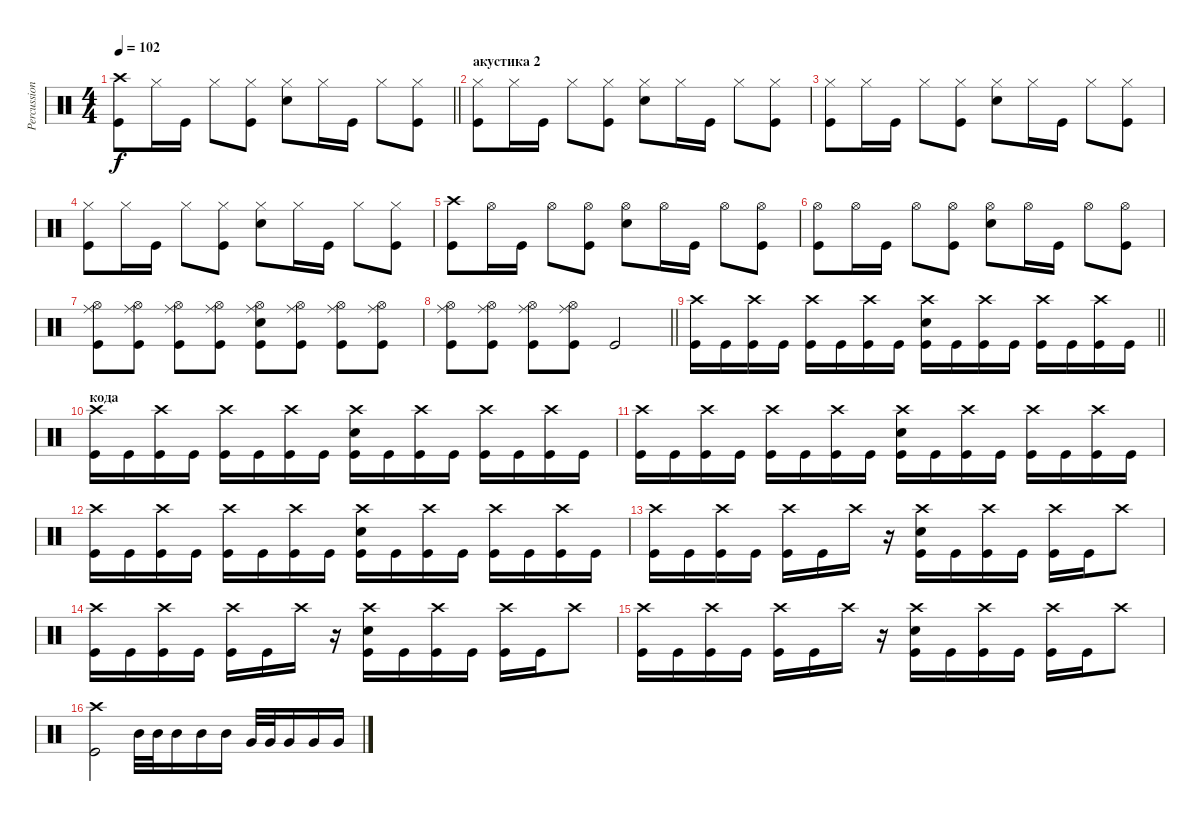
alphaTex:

\track ("Percussion" "Percussion") {solo instrument percussion}
\staff {score}
\articulation defaults
\ts (4 4)
\tempo 102
\clef neutral
\barLineRight lightlight
\ks c
("Kick (hit)" "Crash high (hit)").8{dy f} "Hi-Hat (closed)".16 "Kick (hit)".16 "Hi-Hat (closed)".8 ("Hi-Hat (closed)" "Kick (hit)").8 ("Hi-Hat (closed)" "Snare (hit) 2").8 "Hi-Hat (closed)".16 "Kick (hit)".16 "Hi-Hat (closed)".8 ("Kick (hit)" "Hi-Hat (closed)").8 |
\section ("" "акустика 2")
("Kick (hit)" "Hi-Hat (closed)").8 "Hi-Hat (closed)".16 "Kick (hit)".16 "Hi-Hat (closed)".8 ("Hi-Hat (closed)" "Kick (hit)").8 ("Hi-Hat (closed)" "Snare (hit) 2").8 "Hi-Hat (closed)".16 "Kick (hit)".16 "Hi-Hat (closed)".8 ("Kick (hit)" "Hi-Hat (closed)").8 |
("Kick (hit)" "Hi-Hat (closed)").8 "Hi-Hat (closed)".16 "Kick (hit)".16 "Hi-Hat (closed)".8 ("Hi-Hat (closed)" "Kick (hit)").8 ("Hi-Hat (closed)" "Snare (hit) 2").8 "Hi-Hat (closed)".16 "Kick (hit)".16 "Hi-Hat (closed)".8 ("Kick (hit)" "Hi-Hat (closed)").8 |
("Kick (hit)" "Hi-Hat (closed)").8 "Hi-Hat (closed)".16 "Kick (hit)".16 "Hi-Hat (closed)".8 ("Hi-Hat (closed)" "Kick (hit)").8 ("Hi-Hat (closed)" "Snare (hit) 2").8 "Hi-Hat (closed)".16 "Kick (hit)".16 "Hi-Hat (closed)".8 ("Kick (hit)" "Hi-Hat (closed)").8 |
("Kick (hit)" "Crash high (hit)").8 "Hi-Hat (open)".16 "Kick (hit)".16 "Hi-Hat (open)".8 ("Hi-Hat (open)" "Kick (hit)").8 ("Hi-Hat (open)" "Snare (hit) 2").8 "Hi-Hat (open)".16 "Kick (hit)".16 "Hi-Hat (open)".8 ("Kick (hit)" "Hi-Hat (open)").8 |
("Kick (hit)" "Hi-Hat (open)").8 "Hi-Hat (open)".16 "Kick (hit)".16 "Hi-Hat (open)".8 ("Kick (hit)" "Hi-Hat (open)").8 ("Snare (hit) 2" "Hi-Hat (open)").8 "Hi-Hat (open)".16 "Kick (hit)".16 "Hi-Hat (open)".8 ("Kick (hit)" "Hi-Hat (open)").8 |
("Hi-Hat (open)" "Kick (hit)" "Ride (middle)").8 ("Kick (hit)" "Hi-Hat (open)" "Ride (middle)").8 ("Hi-Hat (open)" "Kick (hit)" "Ride (middle)").8 ("Kick (hit)" "Hi-Hat (open)" "Ride (middle)").8 ("Kick (hit)" "Hi-Hat (open)" "Ride (middle)" "Snare (hit) 2").8 ("Kick (hit)" "Hi-Hat (open)" "Ride (middle)").8 ("Kick (hit)" "Hi-Hat (open)" "Ride (middle)").8 ("Kick (hit)" "Hi-Hat (open)" "Ride (middle)").8 |
\barLineRight lightlight
("Kick (hit)" "Hi-Hat (open)" "Ride (middle)").8 ("Kick (hit)" "Hi-Hat (open)" "Ride (middle)").8 ("Kick (hit)" "Hi-Hat (open)" "Ride (middle)").8 ("Kick (hit)" "Hi-Hat (open)" "Ride (middle)").8 "Kick (hit)".2 |
\barLineRight lightlight
("Kick (hit)" "Crash high (hit)").16 "Kick (hit)".16 ("Kick (hit)" "Crash high (hit)").16 "Kick (hit)".16 ("Kick (hit)" "Crash high (hit)").16 "Kick (hit)".16 ("Kick (hit)" "Crash high (hit)").16 "Kick (hit)".16 ("Kick (hit)" "Crash high (hit)" "Snare (hit) 2").16 "Kick (hit)".16 ("Kick (hit)" "Crash high (hit)").16 "Kick (hit)".16 ("Kick (hit)" "Crash high (hit)").16 "Kick (hit)".16 ("Kick (hit)" "Crash high (hit)").16 "Kick (hit)".16 |
\section ("" "кода")
("Kick (hit)" "Crash high (hit)").16 "Kick (hit)".16 ("Kick (hit)" "Crash high (hit)").16 "Kick (hit)".16 ("Kick (hit)" "Crash high (hit)").16 "Kick (hit)".16 ("Kick (hit)" "Crash high (hit)").16 "Kick (hit)".16 ("Kick (hit)" "Crash high (hit)" "Snare (hit) 2").16 "Kick (hit)".16 ("Kick (hit)" "Crash high (hit)").16 "Kick (hit)".16 ("Kick (hit)" "Crash high (hit)").16 "Kick (hit)".16 ("Kick (hit)" "Crash high (hit)").16 "Kick (hit)".16 |
("Kick (hit)" "Crash high (hit)").16 "Kick (hit)".16 ("Kick (hit)" "Crash high (hit)").16 "Kick (hit)".16 ("Kick (hit)" "Crash high (hit)").16 "Kick (hit)".16 ("Kick (hit)" "Crash high (hit)").16 "Kick (hit)".16 ("Kick (hit)" "Crash high (hit)" "Snare (hit) 2").16 "Kick (hit)".16 ("Kick (hit)" "Crash high (hit)").16 "Kick (hit)".16 ("Kick (hit)" "Crash high (hit)").16 "Kick (hit)".16 ("Kick (hit)" "Crash high (hit)").16 "Kick (hit)".16 |
("Kick (hit)" "Crash high (hit)").16 "Kick (hit)".16 ("Kick (hit)" "Crash high (hit)").16 "Kick (hit)".16 ("Kick (hit)" "Crash high (hit)").16 "Kick (hit)".16 ("Kick (hit)" "Crash high (hit)").16 "Kick (hit)".16 ("Kick (hit)" "Crash high (hit)" "Snare (hit) 2").16 "Kick (hit)".16 ("Kick (hit)" "Crash high (hit)").16 "Kick (hit)".16 ("Kick (hit)" "Crash high (hit)").16 "Kick (hit)".16 ("Kick (hit)" "Crash high (hit)").16 "Kick (hit)".16 |
("Kick (hit)" "Crash high (hit)").16 "Kick (hit)".16 ("Kick (hit)" "Crash high (hit)").16 "Kick (hit)".16 ("Kick (hit)" "Crash high (hit)").16 "Kick (hit)".16 "Crash high (hit)".16 r.16 ("Kick (hit)" "Crash high (hit)" "Snare (hit) 2").16 "Kick (hit)".16 ("Kick (hit)" "Crash high (hit)").16 "Kick (hit)".16 ("Kick (hit)" "Crash high (hit)").16 "Kick (hit)".16 "Crash high (hit)".8 |
("Kick (hit)" "Crash high (hit)").16 "Kick (hit)".16 ("Kick (hit)" "Crash high (hit)").16 "Kick (hit)".16 ("Kick (hit)" "Crash high (hit)").16 "Kick (hit)".16 "Crash high (hit)".16 r.16 ("Kick (hit)" "Crash high (hit)" "Snare (hit) 2").16 "Kick (hit)".16 ("Kick (hit)" "Crash high (hit)").16 "Kick (hit)".16 ("Kick (hit)" "Crash high (hit)").16 "Kick (hit)".16 "Crash high (hit)".8 |
("Kick (hit)" "Crash high (hit)").16 "Kick (hit)".16 ("Kick (hit)" "Crash high (hit)").16 "Kick (hit)".16 ("Kick (hit)" "Crash high (hit)").16 "Kick (hit)".16 "Crash high (hit)".16 r.16 ("Kick (hit)" "Crash high (hit)" "Snare (hit) 2").16 "Kick (hit)".16 ("Kick (hit)" "Crash high (hit)").16 "Kick (hit)".16 ("Kick (hit)" "Crash high (hit)").16 "Kick (hit)".16 "Crash high (hit)".8 |
("Kick (hit)" "Crash high (hit)").2 "Mid Tom (hit)".32 "Mid Tom (hit)".32 "Mid Tom (hit)".16 "Mid Tom (hit)".16 "Mid Tom (hit)".16 "Very Low Tom (hit)".32 "Very Low Tom (hit)".32 "Very Low Tom (hit)".16 "Very Low Tom (hit)".16 "Very Low Tom (hit)".16
